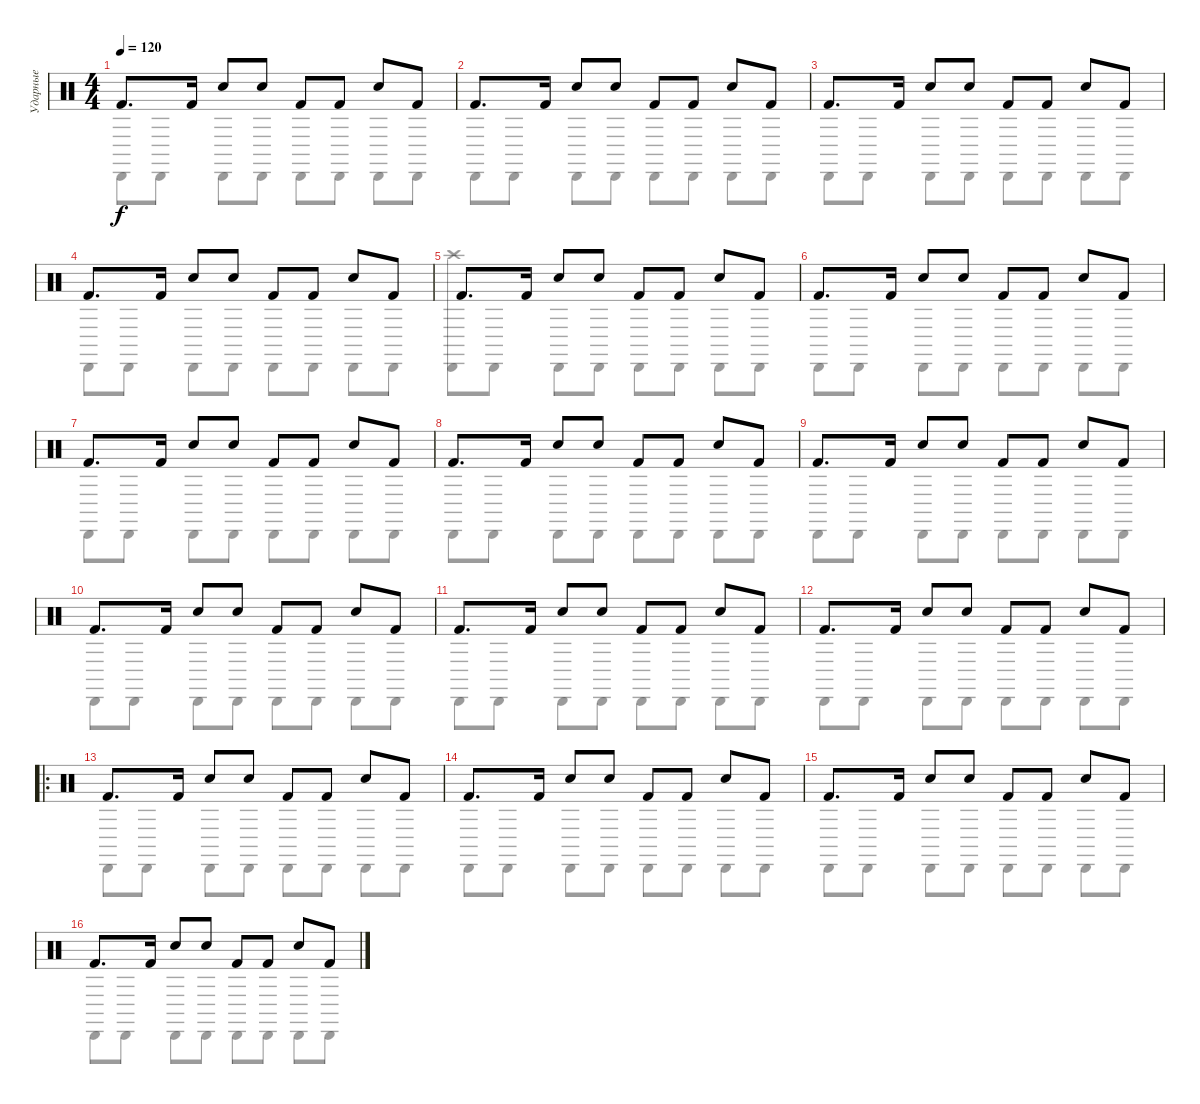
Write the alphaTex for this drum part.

\track ("Ударные" "Ударные") {instrument percussion}
\staff {score}
\articulation defaults
\voice
\ts (4 4)
\tempo 120
\clef neutral
\ks c "Kick (hit) 2".8{d dy f} "Kick (hit) 2".16 "Hand Clap (hit)".8 "Hand Clap (hit)".8 "Kick (hit) 2".8 "Kick (hit) 2".8 "Hand Clap (hit)".8 "Kick (hit) 2".8
|
"Kick (hit) 2".8{d} "Kick (hit) 2".16 "Hand Clap (hit)".8 "Hand Clap (hit)".8 "Kick (hit) 2".8 "Kick (hit) 2".8 "Hand Clap (hit)".8 "Kick (hit) 2".8 |
"Kick (hit) 2".8{d} "Kick (hit) 2".16 "Hand Clap (hit)".8 "Hand Clap (hit)".8 "Kick (hit) 2".8 "Kick (hit) 2".8 "Hand Clap (hit)".8 "Kick (hit) 2".8 |
"Kick (hit) 2".8{d} "Kick (hit) 2".16 "Hand Clap (hit)".8 "Hand Clap (hit)".8 "Kick (hit) 2".8 "Kick (hit) 2".8 "Hand Clap (hit)".8 "Kick (hit) 2".8 |
"Kick (hit) 2".8{d} "Kick (hit) 2".16 "Hand Clap (hit)".8 "Hand Clap (hit)".8 "Kick (hit) 2".8 "Kick (hit) 2".8 "Hand Clap (hit)".8 "Kick (hit) 2".8 |
"Kick (hit) 2".8{d} "Kick (hit) 2".16 "Hand Clap (hit)".8 "Hand Clap (hit)".8 "Kick (hit) 2".8 "Kick (hit) 2".8 "Hand Clap (hit)".8 "Kick (hit) 2".8 |
"Kick (hit) 2".8{d} "Kick (hit) 2".16 "Hand Clap (hit)".8 "Hand Clap (hit)".8 "Kick (hit) 2".8 "Kick (hit) 2".8 "Hand Clap (hit)".8 "Kick (hit) 2".8 |
"Kick (hit) 2".8{d} "Kick (hit) 2".16 "Hand Clap (hit)".8 "Hand Clap (hit)".8 "Kick (hit) 2".8 "Kick (hit) 2".8 "Hand Clap (hit)".8 "Kick (hit) 2".8 |
"Kick (hit) 2".8{d} "Kick (hit) 2".16 "Hand Clap (hit)".8 "Hand Clap (hit)".8 "Kick (hit) 2".8 "Kick (hit) 2".8 "Hand Clap (hit)".8 "Kick (hit) 2".8 |
"Kick (hit) 2".8{d} "Kick (hit) 2".16 "Hand Clap (hit)".8 "Hand Clap (hit)".8 "Kick (hit) 2".8 "Kick (hit) 2".8 "Hand Clap (hit)".8 "Kick (hit) 2".8 |
"Kick (hit) 2".8{d} "Kick (hit) 2".16 "Hand Clap (hit)".8 "Hand Clap (hit)".8 "Kick (hit) 2".8 "Kick (hit) 2".8 "Hand Clap (hit)".8 "Kick (hit) 2".8 |
"Kick (hit) 2".8{d} "Kick (hit) 2".16 "Hand Clap (hit)".8 "Hand Clap (hit)".8 "Kick (hit) 2".8 "Kick (hit) 2".8 "Hand Clap (hit)".8 "Kick (hit) 2".8 |
\ro "Kick (hit) 2".8{d} "Kick (hit) 2".16 "Hand Clap (hit)".8 "Hand Clap (hit)".8 "Kick (hit) 2".8 "Kick (hit) 2".8 "Hand Clap (hit)".8 "Kick (hit) 2".8
|
"Kick (hit) 2".8{d} "Kick (hit) 2".16 "Hand Clap (hit)".8 "Hand Clap (hit)".8 "Kick (hit) 2".8 "Kick (hit) 2".8 "Hand Clap (hit)".8 "Kick (hit) 2".8 |
"Kick (hit) 2".8{d} "Kick (hit) 2".16 "Hand Clap (hit)".8 "Hand Clap (hit)".8 "Kick (hit) 2".8 "Kick (hit) 2".8 "Hand Clap (hit)".8 "Kick (hit) 2".8 |
"Kick (hit) 2".8{d} "Kick (hit) 2".16 "Hand Clap (hit)".8 "Hand Clap (hit)".8 "Kick (hit) 2".8 "Kick (hit) 2".8 "Hand Clap (hit)".8 "Kick (hit) 2".8
\voice
\clef neutral
\ottava regular
\simile none
\ks c "Cabasa (hit)".8{dy f} "Cabasa (hit)".8 "Cabasa (hit)".8 "Cabasa (hit)".8 "Cabasa (hit)".8 "Cabasa (hit)".8 "Cabasa (hit)".8 "Cabasa (hit)".8
|
"Cabasa (hit)".8 "Cabasa (hit)".8 "Cabasa (hit)".8 "Cabasa (hit)".8 "Cabasa (hit)".8 "Cabasa (hit)".8 "Cabasa (hit)".8 "Cabasa (hit)".8 |
"Cabasa (hit)".8 "Cabasa (hit)".8 "Cabasa (hit)".8 "Cabasa (hit)".8 "Cabasa (hit)".8 "Cabasa (hit)".8 "Cabasa (hit)".8 "Cabasa (hit)".8 |
"Cabasa (hit)".8 "Cabasa (hit)".8 "Cabasa (hit)".8 "Cabasa (hit)".8 "Cabasa (hit)".8 "Cabasa (hit)".8 "Cabasa (hit)".8 "Cabasa (hit)".8 |
("Cabasa (hit)" "Crash high (hit)").8 "Cabasa (hit)".8 "Cabasa (hit)".8 "Cabasa (hit)".8 "Cabasa (hit)".8 "Cabasa (hit)".8 "Cabasa (hit)".8 "Cabasa (hit)".8 |
"Cabasa (hit)".8 "Cabasa (hit)".8 "Cabasa (hit)".8 "Cabasa (hit)".8 "Cabasa (hit)".8 "Cabasa (hit)".8 "Cabasa (hit)".8 "Cabasa (hit)".8 |
"Cabasa (hit)".8 "Cabasa (hit)".8 "Cabasa (hit)".8 "Cabasa (hit)".8 "Cabasa (hit)".8 "Cabasa (hit)".8 "Cabasa (hit)".8 "Cabasa (hit)".8 |
"Cabasa (hit)".8 "Cabasa (hit)".8 "Cabasa (hit)".8 "Cabasa (hit)".8 "Cabasa (hit)".8 "Cabasa (hit)".8 "Cabasa (hit)".8 "Cabasa (hit)".8 |
"Cabasa (hit)".8 "Cabasa (hit)".8 "Cabasa (hit)".8 "Cabasa (hit)".8 "Cabasa (hit)".8 "Cabasa (hit)".8 "Cabasa (hit)".8 "Cabasa (hit)".8 |
"Cabasa (hit)".8 "Cabasa (hit)".8 "Cabasa (hit)".8 "Cabasa (hit)".8 "Cabasa (hit)".8 "Cabasa (hit)".8 "Cabasa (hit)".8 "Cabasa (hit)".8 |
"Cabasa (hit)".8 "Cabasa (hit)".8 "Cabasa (hit)".8 "Cabasa (hit)".8 "Cabasa (hit)".8 "Cabasa (hit)".8 "Cabasa (hit)".8 "Cabasa (hit)".8 |
"Cabasa (hit)".8 "Cabasa (hit)".8 "Cabasa (hit)".8 "Cabasa (hit)".8 "Cabasa (hit)".8 "Cabasa (hit)".8 "Cabasa (hit)".8 "Cabasa (hit)".8 |
"Cabasa (hit)".8 "Cabasa (hit)".8 "Cabasa (hit)".8 "Cabasa (hit)".8 "Cabasa (hit)".8 "Cabasa (hit)".8 "Cabasa (hit)".8 "Cabasa (hit)".8 |
"Cabasa (hit)".8 "Cabasa (hit)".8 "Cabasa (hit)".8 "Cabasa (hit)".8 "Cabasa (hit)".8 "Cabasa (hit)".8 "Cabasa (hit)".8 "Cabasa (hit)".8 |
"Cabasa (hit)".8 "Cabasa (hit)".8 "Cabasa (hit)".8 "Cabasa (hit)".8 "Cabasa (hit)".8 "Cabasa (hit)".8 "Cabasa (hit)".8 "Cabasa (hit)".8 |
"Cabasa (hit)".8 "Cabasa (hit)".8 "Cabasa (hit)".8 "Cabasa (hit)".8 "Cabasa (hit)".8 "Cabasa (hit)".8 "Cabasa (hit)".8 "Cabasa (hit)".8
